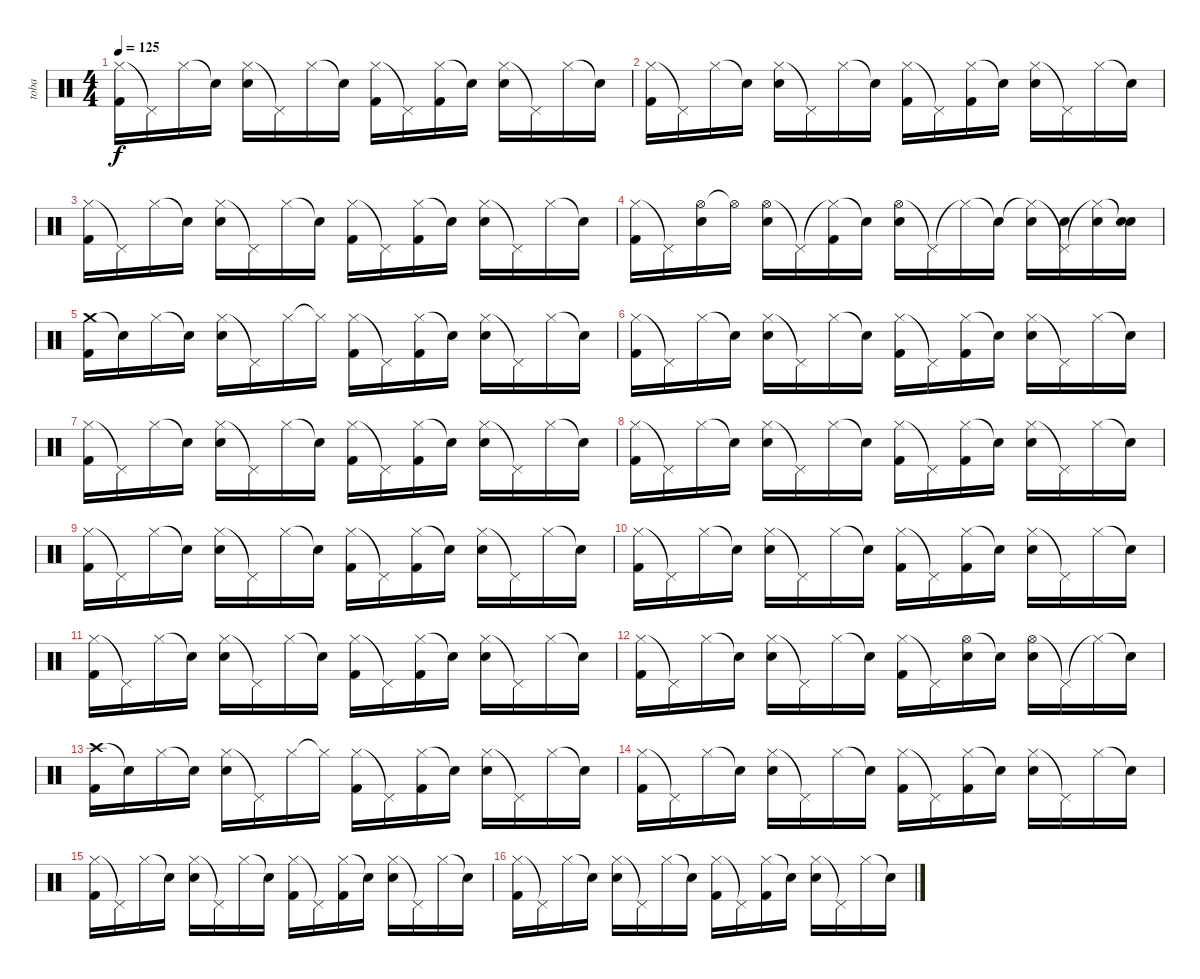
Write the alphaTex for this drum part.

\track ("toba" "toba") {instrument percussion}
\staff {score}
\articulation defaults
\ts (4 4)
\tempo 125
\clef neutral
\ks c
("Hi-Hat (closed)" "Kick (hit) 2").16{dy f} "Pedal Hi-Hat (hit)"{t}.16 "Hi-Hat (closed)".16 "Snare (hit)"{t}.16 ("Hi-Hat (closed)" "Electric Snare (hit)").16 "Pedal Hi-Hat (hit)"{t}.16 "Hi-Hat (closed)".16 "Snare (hit)"{t}.16 ("Hi-Hat (closed)" "Kick (hit) 2").16 "Pedal Hi-Hat (hit)"{t}.16 ("Hi-Hat (closed)" "Kick (hit) 2").16 "Snare (hit)"{t}.16 ("Hi-Hat (closed)" "Electric Snare (hit)").16 "Pedal Hi-Hat (hit)"{t}.16 "Hi-Hat (closed)".16 "Snare (hit)"{t}.16 |
("Hi-Hat (closed)" "Kick (hit) 2").16 "Pedal Hi-Hat (hit)"{t}.16 "Hi-Hat (closed)".16 "Snare (hit)"{t}.16 ("Hi-Hat (closed)" "Electric Snare (hit)").16 "Pedal Hi-Hat (hit)"{t}.16 "Hi-Hat (closed)".16 "Snare (hit)"{t}.16 ("Hi-Hat (closed)" "Kick (hit) 2").16 "Pedal Hi-Hat (hit)"{t}.16 ("Hi-Hat (closed)" "Kick (hit) 2").16 "Snare (hit)"{t}.16 ("Hi-Hat (closed)" "Electric Snare (hit)").16 "Pedal Hi-Hat (hit)"{t}.16 "Hi-Hat (closed)".16 "Snare (hit)"{t}.16 |
("Hi-Hat (closed)" "Kick (hit) 2").16 "Pedal Hi-Hat (hit)"{t}.16 "Hi-Hat (closed)".16 "Snare (hit)"{t}.16 ("Hi-Hat (closed)" "Electric Snare (hit)").16 "Pedal Hi-Hat (hit)"{t}.16 "Hi-Hat (closed)".16 "Snare (hit)"{t}.16 ("Hi-Hat (closed)" "Kick (hit) 2").16 "Pedal Hi-Hat (hit)"{t}.16 ("Hi-Hat (closed)" "Kick (hit) 2").16 "Snare (hit)"{t}.16 ("Hi-Hat (closed)" "Electric Snare (hit)").16 "Pedal Hi-Hat (hit)"{t}.16 "Hi-Hat (closed)".16 "Snare (hit)"{t}.16 |
("Hi-Hat (closed)" "Kick (hit) 2").16 "Pedal Hi-Hat (hit)"{t}.16 ("Hi-Hat (open)" "Electric Snare (hit)").16 "Hi-Hat (open)"{t}.16 ("Hi-Hat (open)" "Electric Snare (hit)").16 "Pedal Hi-Hat (hit)"{t}.16 ("Hi-Hat (closed)"{t} "Kick (hit) 2").16 "Snare (hit)"{t}.16 ("Hi-Hat (open)" "Electric Snare (hit)").16 "Pedal Hi-Hat (hit)"{t}.16 "Hi-Hat (closed)"{t}.16 "Snare (hit)"{t}.16 ("Hi-Hat (closed)"{t} "Electric Snare (hit)").16 ("Pedal Hi-Hat (hit)"{t} "Electric Snare (hit)").16 ("Hi-Hat (closed)"{t} "Electric Snare (hit)").16 ("Snare (hit)"{t} "Electric Snare (hit)").16 |
("Crash medium (hit)" "Kick (hit) 2").16 "Snare (hit)"{t}.16 "Hi-Hat (closed)".16 "Snare (hit)"{t}.16 ("Hi-Hat (closed)" "Electric Snare (hit)").16 "Pedal Hi-Hat (hit)"{t}.16 "Hi-Hat (closed)".16 "Hi-Hat (closed)"{t}.16 ("Hi-Hat (closed)" "Kick (hit) 2").16 "Pedal Hi-Hat (hit)"{t}.16 ("Hi-Hat (closed)" "Kick (hit) 2").16 "Snare (hit)"{t}.16 ("Hi-Hat (closed)" "Electric Snare (hit)").16 "Pedal Hi-Hat (hit)"{t}.16 "Hi-Hat (closed)".16 "Snare (hit)"{t}.16 |
("Hi-Hat (closed)" "Kick (hit) 2").16 "Pedal Hi-Hat (hit)"{t}.16 "Hi-Hat (closed)".16 "Snare (hit)"{t}.16 ("Hi-Hat (closed)" "Electric Snare (hit)").16 "Pedal Hi-Hat (hit)"{t}.16 "Hi-Hat (closed)".16 "Snare (hit)"{t}.16 ("Hi-Hat (closed)" "Kick (hit) 2").16 "Pedal Hi-Hat (hit)"{t}.16 ("Hi-Hat (closed)" "Kick (hit) 2").16 "Snare (hit)"{t}.16 ("Hi-Hat (closed)" "Electric Snare (hit)").16 "Pedal Hi-Hat (hit)"{t}.16 "Hi-Hat (closed)".16 "Snare (hit)"{t}.16 |
("Hi-Hat (closed)" "Kick (hit) 2").16 "Pedal Hi-Hat (hit)"{t}.16 "Hi-Hat (closed)".16 "Snare (hit)"{t}.16 ("Hi-Hat (closed)" "Electric Snare (hit)").16 "Pedal Hi-Hat (hit)"{t}.16 "Hi-Hat (closed)".16 "Snare (hit)"{t}.16 ("Hi-Hat (closed)" "Kick (hit) 2").16 "Pedal Hi-Hat (hit)"{t}.16 ("Hi-Hat (closed)" "Kick (hit) 2").16 "Snare (hit)"{t}.16 ("Hi-Hat (closed)" "Electric Snare (hit)").16 "Pedal Hi-Hat (hit)"{t}.16 "Hi-Hat (closed)".16 "Snare (hit)"{t}.16 |
("Hi-Hat (closed)" "Kick (hit) 2").16 "Pedal Hi-Hat (hit)"{t}.16 "Hi-Hat (closed)".16 "Snare (hit)"{t}.16 ("Hi-Hat (closed)" "Electric Snare (hit)").16 "Pedal Hi-Hat (hit)"{t}.16 "Hi-Hat (closed)".16 "Snare (hit)"{t}.16 ("Hi-Hat (closed)" "Kick (hit) 2").16 "Pedal Hi-Hat (hit)"{t}.16 ("Hi-Hat (closed)" "Kick (hit) 2").16 "Snare (hit)"{t}.16 ("Hi-Hat (closed)" "Electric Snare (hit)").16 "Pedal Hi-Hat (hit)"{t}.16 "Hi-Hat (closed)".16 "Snare (hit)"{t}.16 |
("Hi-Hat (closed)" "Kick (hit) 2").16 "Pedal Hi-Hat (hit)"{t}.16 "Hi-Hat (closed)".16 "Snare (hit)"{t}.16 ("Hi-Hat (closed)" "Electric Snare (hit)").16 "Pedal Hi-Hat (hit)"{t}.16 "Hi-Hat (closed)".16 "Snare (hit)"{t}.16 ("Hi-Hat (closed)" "Kick (hit) 2").16 "Pedal Hi-Hat (hit)"{t}.16 ("Hi-Hat (closed)" "Kick (hit) 2").16 "Snare (hit)"{t}.16 ("Hi-Hat (closed)" "Electric Snare (hit)").16 "Pedal Hi-Hat (hit)"{t}.16 "Hi-Hat (closed)".16 "Snare (hit)"{t}.16 |
("Hi-Hat (closed)" "Kick (hit) 2").16 "Pedal Hi-Hat (hit)"{t}.16 "Hi-Hat (closed)".16 "Snare (hit)"{t}.16 ("Hi-Hat (closed)" "Electric Snare (hit)").16 "Pedal Hi-Hat (hit)"{t}.16 "Hi-Hat (closed)".16 "Snare (hit)"{t}.16 ("Hi-Hat (closed)" "Kick (hit) 2").16 "Pedal Hi-Hat (hit)"{t}.16 ("Hi-Hat (closed)" "Kick (hit) 2").16 "Snare (hit)"{t}.16 ("Hi-Hat (closed)" "Electric Snare (hit)").16 "Pedal Hi-Hat (hit)"{t}.16 "Hi-Hat (closed)".16 "Snare (hit)"{t}.16 |
("Hi-Hat (closed)" "Kick (hit) 2").16 "Pedal Hi-Hat (hit)"{t}.16 "Hi-Hat (closed)".16 "Snare (hit)"{t}.16 ("Hi-Hat (closed)" "Electric Snare (hit)").16 "Pedal Hi-Hat (hit)"{t}.16 "Hi-Hat (closed)".16 "Snare (hit)"{t}.16 ("Hi-Hat (closed)" "Kick (hit) 2").16 "Pedal Hi-Hat (hit)"{t}.16 ("Hi-Hat (closed)" "Kick (hit) 2").16 "Snare (hit)"{t}.16 ("Hi-Hat (closed)" "Electric Snare (hit)").16 "Pedal Hi-Hat (hit)"{t}.16 "Hi-Hat (closed)".16 "Snare (hit)"{t}.16 |
("Hi-Hat (closed)" "Kick (hit) 2").16 "Pedal Hi-Hat (hit)"{t}.16 "Hi-Hat (closed)".16 "Snare (hit)"{t}.16 ("Hi-Hat (closed)" "Electric Snare (hit)").16 "Pedal Hi-Hat (hit)"{t}.16 "Hi-Hat (closed)".16 "Snare (hit)"{t}.16 ("Hi-Hat (closed)" "Kick (hit) 2").16 "Pedal Hi-Hat (hit)"{t}.16 ("Hi-Hat (open)" "Electric Snare (hit)").16 "Snare (hit)"{t}.16 ("Hi-Hat (open)" "Electric Snare (hit)").16 "Pedal Hi-Hat (hit)"{t}.16 "Hi-Hat (closed)"{t}.16 "Snare (hit)"{t}.16 |
("Crash high (hit)" "Kick (hit) 2").16 "Snare (hit)"{t}.16 "Hi-Hat (closed)".16 "Snare (hit)"{t}.16 ("Hi-Hat (closed)" "Electric Snare (hit)").16 "Pedal Hi-Hat (hit)"{t}.16 "Hi-Hat (closed)".16 "Hi-Hat (closed)"{t}.16 ("Hi-Hat (closed)" "Kick (hit) 2").16 "Pedal Hi-Hat (hit)"{t}.16 ("Hi-Hat (closed)" "Kick (hit) 2").16 "Snare (hit)"{t}.16 ("Hi-Hat (closed)" "Electric Snare (hit)").16 "Pedal Hi-Hat (hit)"{t}.16 "Hi-Hat (closed)".16 "Snare (hit)"{t}.16 |
("Hi-Hat (closed)" "Kick (hit) 2").16 "Pedal Hi-Hat (hit)"{t}.16 "Hi-Hat (closed)".16 "Snare (hit)"{t}.16 ("Hi-Hat (closed)" "Electric Snare (hit)").16 "Pedal Hi-Hat (hit)"{t}.16 "Hi-Hat (closed)".16 "Snare (hit)"{t}.16 ("Hi-Hat (closed)" "Kick (hit) 2").16 "Pedal Hi-Hat (hit)"{t}.16 ("Hi-Hat (closed)" "Kick (hit) 2").16 "Snare (hit)"{t}.16 ("Hi-Hat (closed)" "Electric Snare (hit)").16 "Pedal Hi-Hat (hit)"{t}.16 "Hi-Hat (closed)".16 "Snare (hit)"{t}.16 |
("Hi-Hat (closed)" "Kick (hit) 2").16 "Pedal Hi-Hat (hit)"{t}.16 "Hi-Hat (closed)".16 "Snare (hit)"{t}.16 ("Hi-Hat (closed)" "Electric Snare (hit)").16 "Pedal Hi-Hat (hit)"{t}.16 "Hi-Hat (closed)".16 "Snare (hit)"{t}.16 ("Hi-Hat (closed)" "Kick (hit) 2").16 "Pedal Hi-Hat (hit)"{t}.16 ("Hi-Hat (closed)" "Kick (hit) 2").16 "Snare (hit)"{t}.16 ("Hi-Hat (closed)" "Electric Snare (hit)").16 "Pedal Hi-Hat (hit)"{t}.16 "Hi-Hat (closed)".16 "Snare (hit)"{t}.16 |
("Hi-Hat (closed)" "Kick (hit) 2").16 "Pedal Hi-Hat (hit)"{t}.16 "Hi-Hat (closed)".16 "Snare (hit)"{t}.16 ("Hi-Hat (closed)" "Electric Snare (hit)").16 "Pedal Hi-Hat (hit)"{t}.16 "Hi-Hat (closed)".16 "Snare (hit)"{t}.16 ("Hi-Hat (closed)" "Kick (hit) 2").16 "Pedal Hi-Hat (hit)"{t}.16 ("Hi-Hat (closed)" "Kick (hit) 2").16 "Snare (hit)"{t}.16 ("Hi-Hat (closed)" "Electric Snare (hit)").16 "Pedal Hi-Hat (hit)"{t}.16 "Hi-Hat (closed)".16 "Snare (hit)"{t}.16
